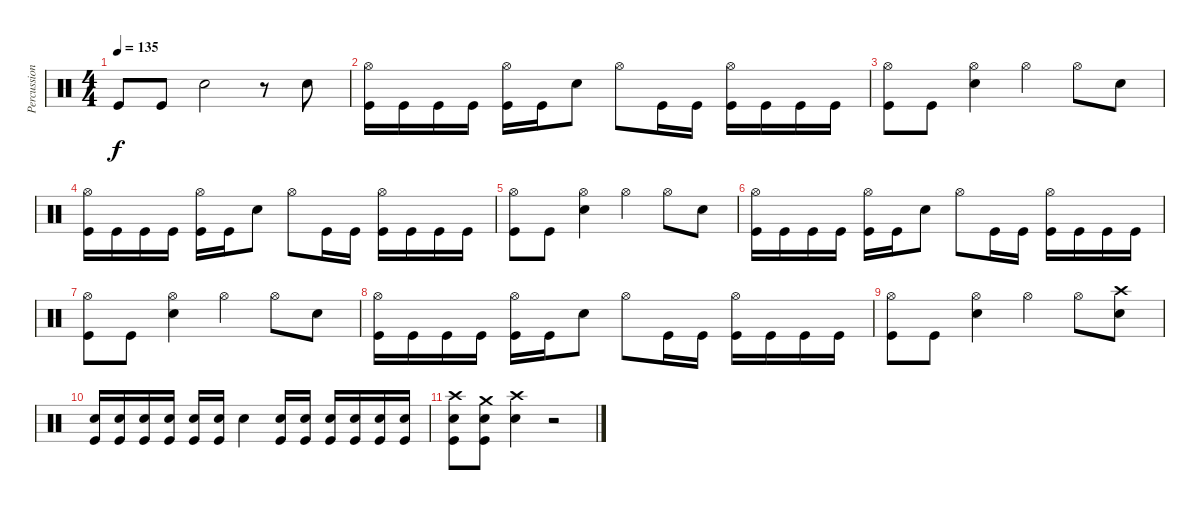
\track ("Percussion" "Percussion") {instrument percussion}
\staff {score}
\articulation defaults
\ts (4 4)
\tempo 135
\clef neutral
\ks c "Kick (hit)".8{dy f} "Kick (hit)".8 "Snare (hit) 2".2
r.8 "Snare (hit) 2".8 |
("Hi-Hat (open)" "Kick (hit)").16 "Kick (hit)".16 "Kick (hit)".16 "Kick (hit)".16 ("Hi-Hat (open)" "Kick (hit)").16 "Kick (hit)".16 "Snare (hit) 2".8 "Hi-Hat (open)".8 "Kick (hit)".16 "Kick (hit)".16 ("Hi-Hat (open)" "Kick (hit)").16 "Kick (hit)".16 "Kick (hit)".16 "Kick (hit)".16 |
("Hi-Hat (open)" "Kick (hit)").8 "Kick (hit)".8 ("Hi-Hat (open)" "Snare (hit) 2").4 "Hi-Hat (open)".4 "Hi-Hat (open)".8 "Snare (hit) 2".8 |
("Hi-Hat (open)" "Kick (hit)").16 "Kick (hit)".16 "Kick (hit)".16 "Kick (hit)".16 ("Hi-Hat (open)" "Kick (hit)").16 "Kick (hit)".16 "Snare (hit) 2".8 "Hi-Hat (open)".8 "Kick (hit)".16 "Kick (hit)".16 ("Hi-Hat (open)" "Kick (hit)").16 "Kick (hit)".16 "Kick (hit)".16 "Kick (hit)".16 |
("Hi-Hat (open)" "Kick (hit)").8 "Kick (hit)".8 ("Hi-Hat (open)" "Snare (hit) 2").4 "Hi-Hat (open)".4 "Hi-Hat (open)".8 "Snare (hit) 2".8 |
("Hi-Hat (open)" "Kick (hit)").16 "Kick (hit)".16 "Kick (hit)".16 "Kick (hit)".16 ("Hi-Hat (open)" "Kick (hit)").16 "Kick (hit)".16 "Snare (hit) 2".8 "Hi-Hat (open)".8 "Kick (hit)".16 "Kick (hit)".16 ("Hi-Hat (open)" "Kick (hit)").16 "Kick (hit)".16 "Kick (hit)".16 "Kick (hit)".16 |
("Hi-Hat (open)" "Kick (hit)").8 "Kick (hit)".8 ("Hi-Hat (open)" "Snare (hit) 2").4 "Hi-Hat (open)".4 "Hi-Hat (open)".8 "Snare (hit) 2".8 |
("Hi-Hat (open)" "Kick (hit)").16 "Kick (hit)".16 "Kick (hit)".16 "Kick (hit)".16 ("Hi-Hat (open)" "Kick (hit)").16 "Kick (hit)".16 "Snare (hit) 2".8 "Hi-Hat (open)".8 "Kick (hit)".16 "Kick (hit)".16 ("Hi-Hat (open)" "Kick (hit)").16 "Kick (hit)".16 "Kick (hit)".16 "Kick (hit)".16 |
("Hi-Hat (open)" "Kick (hit)").8 "Kick (hit)".8 ("Hi-Hat (open)" "Snare (hit) 2").4 "Hi-Hat (open)".4 "Hi-Hat (open)".8 ("Crash high (hit)" "Snare (hit) 2").8 |
("Snare (hit) 2" "Kick (hit)").16 ("Snare (hit) 2" "Kick (hit)").16 ("Snare (hit) 2" "Kick (hit)").16 ("Snare (hit) 2" "Kick (hit)").16 ("Snare (hit) 2" "Kick (hit)").16 ("Snare (hit) 2" "Kick (hit)").16 "Snare (hit) 2".4 ("Snare (hit) 2" "Kick (hit)").16 ("Snare (hit) 2" "Kick (hit)").16 ("Snare (hit) 2" "Kick (hit)").16 ("Snare (hit) 2" "Kick (hit)").16 ("Snare (hit) 2" "Kick (hit)").16 ("Snare (hit) 2" "Kick (hit)").16 |
("Crash high (hit)" "Snare (hit) 2" "Kick (hit)").8 ("Crash medium (hit)" "Snare (hit) 2" "Kick (hit)").8 ("Crash high (hit)" "Snare (hit) 2").4 r.2
